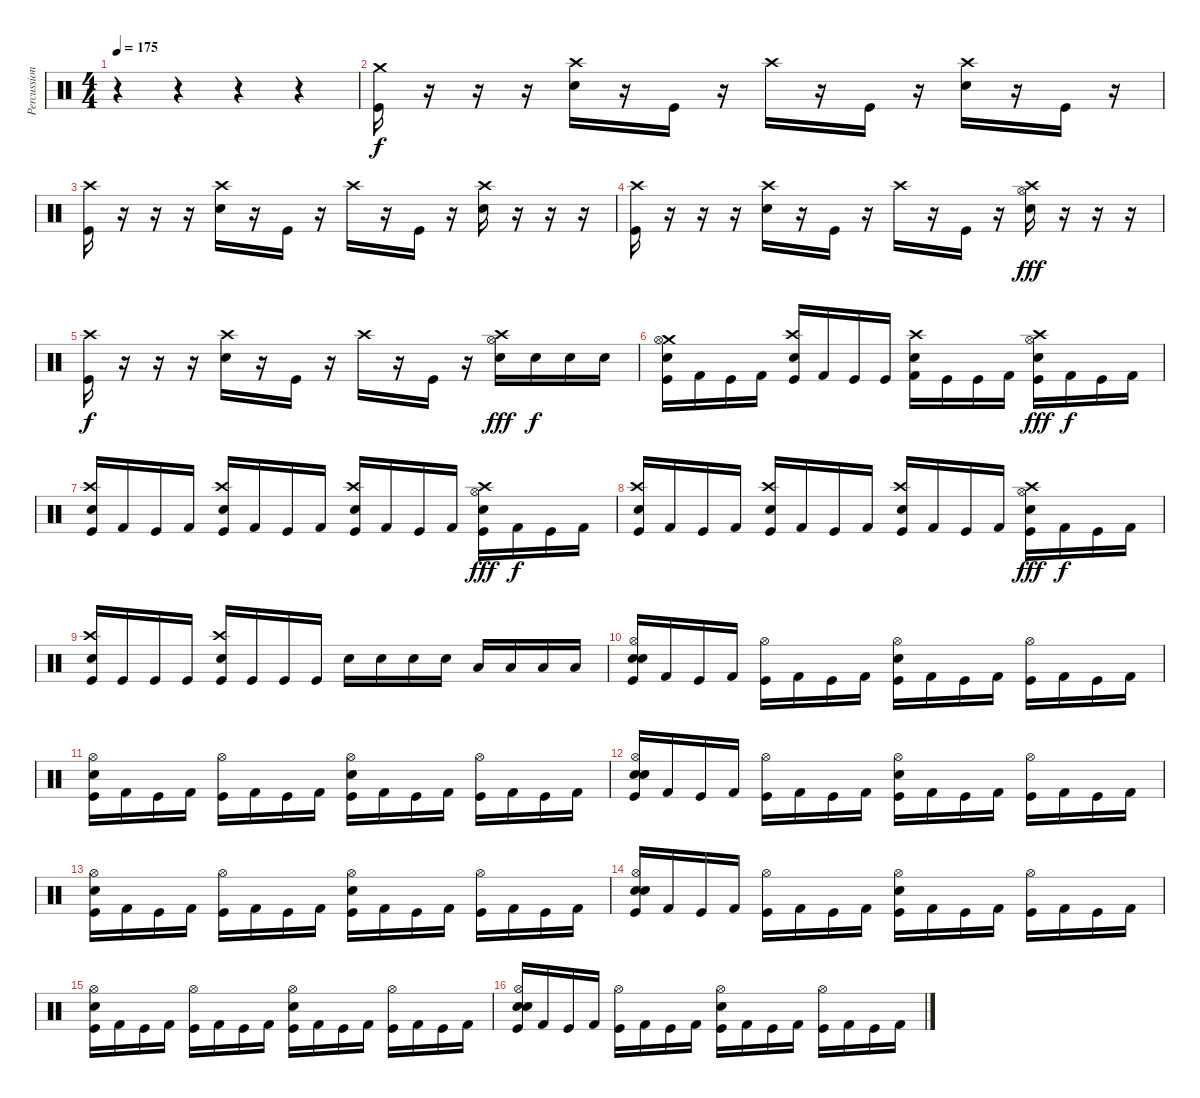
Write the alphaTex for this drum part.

\track ("Percussions" "Percussion") {instrument percussion}
\staff {score}
\articulation defaults
\ts (4 4)
\tempo 175
\clef neutral
\ks c
r.4{dy f} r.4 r.4 r.4 |
("Crash medium (hit)" "Kick (hit)").16 r.16 r.16 r.16 ("Crash high (hit)" "Electric Snare (hit)").16 r.16 "Kick (hit)".16 r.16 "Crash high (hit)".16 r.16 "Kick (hit)".16 r.16 ("Crash high (hit)" "Electric Snare (hit)").16 r.16 "Kick (hit)".16 r.16 |
("Crash high (hit)" "Kick (hit)").16 r.16 r.16 r.16 ("Crash high (hit)" "Electric Snare (hit)").16 r.16 "Kick (hit)".16 r.16 "Crash high (hit)".16 r.16 "Kick (hit)".16 r.16 ("Crash high (hit)" "Electric Snare (hit)").16 r.16 r.16 r.16 |
("Crash high (hit)" "Kick (hit)").16 r.16 r.16 r.16 ("Crash high (hit)" "Electric Snare (hit)").16 r.16 "Kick (hit)".16 r.16 "Crash high (hit)".16 r.16 "Kick (hit)".16 r.16 ("Crash high (hit)" "Hi-Hat (open)" "Electric Snare (hit)").16{dy fff} r.16 r.16 r.16 |
("Crash high (hit)" "Kick (hit)").16{dy f} r.16 r.16 r.16 ("Crash high (hit)" "Electric Snare (hit)").16 r.16 "Kick (hit)".16 r.16 "Crash high (hit)".16 r.16 "Kick (hit)".16 r.16 ("Crash high (hit)" "Hi-Hat (open)" "Electric Snare (hit)").16{dy fff} "Electric Snare (hit)".16{dy f} "Electric Snare (hit)".16 "Electric Snare (hit)".16 |
("Crash medium (hit)" "Electric Snare (hit)" "Hi-Hat (open)" "Kick (hit)").16 "Kick (hit) 2".16 "Kick (hit)".16 "Kick (hit) 2".16 ("Crash high (hit)" "Electric Snare (hit)" "Kick (hit)").16 "Kick (hit) 2".16 "Kick (hit)".16 "Kick (hit)".16 ("Crash high (hit)" "Electric Snare (hit)" "Kick (hit) 2").16 "Kick (hit)".16 "Kick (hit)".16 "Kick (hit) 2".16 ("Crash high (hit)" "Hi-Hat (open)" "Electric Snare (hit)" "Kick (hit)").16{dy fff} "Kick (hit) 2".16{dy f} "Kick (hit)".16 "Kick (hit) 2".16 |
("Crash high (hit)" "Electric Snare (hit)" "Kick (hit)").16 "Kick (hit) 2".16 "Kick (hit)".16 "Kick (hit) 2".16 ("Crash high (hit)" "Electric Snare (hit)" "Kick (hit)").16 "Kick (hit) 2".16 "Kick (hit)".16 "Kick (hit) 2".16 ("Crash high (hit)" "Electric Snare (hit)" "Kick (hit)").16 "Kick (hit) 2".16 "Kick (hit)".16 "Kick (hit) 2".16 ("Crash high (hit)" "Hi-Hat (open)" "Electric Snare (hit)" "Kick (hit)").16{dy fff} "Kick (hit) 2".16{dy f} "Kick (hit)".16 "Kick (hit) 2".16 |
("Crash high (hit)" "Electric Snare (hit)" "Kick (hit)").16 "Kick (hit) 2".16 "Kick (hit)".16 "Kick (hit) 2".16 ("Crash high (hit)" "Electric Snare (hit)" "Kick (hit)").16 "Kick (hit) 2".16 "Kick (hit)".16 "Kick (hit) 2".16 ("Crash high (hit)" "Electric Snare (hit)" "Kick (hit)").16 "Kick (hit) 2".16 "Kick (hit)".16 "Kick (hit) 2".16 ("Crash high (hit)" "Hi-Hat (open)" "Electric Snare (hit)" "Kick (hit)").16{dy fff} "Kick (hit) 2".16{dy f} "Kick (hit)".16 "Kick (hit) 2".16 |
("Crash high (hit)" "Electric Snare (hit)" "Kick (hit)").16 "Kick (hit)".16 "Kick (hit)".16 "Kick (hit)".16 ("Crash high (hit)" "Electric Snare (hit)" "Kick (hit)").16 "Kick (hit)".16 "Kick (hit)".16 "Kick (hit)".16 "Electric Snare (hit)".16 "Electric Snare (hit)".16 "Electric Snare (hit)".16 "Electric Snare (hit)".16 "Low Tom (hit)".16 "Low Tom (hit)".16 "Low Tom (hit)".16 "Low Tom (hit)".16 |
("Hi-Hat (open)" "Electric Snare (hit)" "Snare (hit) 2" "Kick (hit)").16 "Kick (hit) 2".16 "Kick (hit)".16 "Kick (hit) 2".16 ("Hi-Hat (open)" "Kick (hit)").16 "Kick (hit) 2".16 "Kick (hit)".16 "Kick (hit) 2".16 ("Hi-Hat (open)" "Electric Snare (hit)" "Kick (hit)").16 "Kick (hit) 2".16 "Kick (hit)".16 "Kick (hit) 2".16 ("Hi-Hat (open)" "Kick (hit)").16 "Kick (hit) 2".16 "Kick (hit)".16 "Kick (hit) 2".16 |
("Hi-Hat (open)" "Electric Snare (hit)" "Kick (hit)").16 "Kick (hit) 2".16 "Kick (hit)".16 "Kick (hit) 2".16 ("Hi-Hat (open)" "Kick (hit)").16 "Kick (hit) 2".16 "Kick (hit)".16 "Kick (hit) 2".16 ("Hi-Hat (open)" "Electric Snare (hit)" "Kick (hit)").16 "Kick (hit) 2".16 "Kick (hit)".16 "Kick (hit) 2".16 ("Hi-Hat (open)" "Kick (hit)").16 "Kick (hit) 2".16 "Kick (hit)".16 "Kick (hit) 2".16 |
("Hi-Hat (open)" "Electric Snare (hit)" "Snare (hit) 2" "Kick (hit)").16 "Kick (hit) 2".16 "Kick (hit)".16 "Kick (hit) 2".16 ("Hi-Hat (open)" "Kick (hit)").16 "Kick (hit) 2".16 "Kick (hit)".16 "Kick (hit) 2".16 ("Hi-Hat (open)" "Electric Snare (hit)" "Kick (hit)").16 "Kick (hit) 2".16 "Kick (hit)".16 "Kick (hit) 2".16 ("Hi-Hat (open)" "Kick (hit)").16 "Kick (hit) 2".16 "Kick (hit)".16 "Kick (hit) 2".16 |
("Hi-Hat (open)" "Electric Snare (hit)" "Kick (hit)").16 "Kick (hit) 2".16 "Kick (hit)".16 "Kick (hit) 2".16 ("Hi-Hat (open)" "Kick (hit)").16 "Kick (hit) 2".16 "Kick (hit)".16 "Kick (hit) 2".16 ("Hi-Hat (open)" "Electric Snare (hit)" "Kick (hit)").16 "Kick (hit) 2".16 "Kick (hit)".16 "Kick (hit) 2".16 ("Hi-Hat (open)" "Kick (hit)").16 "Kick (hit) 2".16 "Kick (hit)".16 "Kick (hit) 2".16 |
("Hi-Hat (open)" "Electric Snare (hit)" "Snare (hit) 2" "Kick (hit)").16 "Kick (hit) 2".16 "Kick (hit)".16 "Kick (hit) 2".16 ("Hi-Hat (open)" "Kick (hit)").16 "Kick (hit) 2".16 "Kick (hit)".16 "Kick (hit) 2".16 ("Hi-Hat (open)" "Electric Snare (hit)" "Kick (hit)").16 "Kick (hit) 2".16 "Kick (hit)".16 "Kick (hit) 2".16 ("Hi-Hat (open)" "Kick (hit)").16 "Kick (hit) 2".16 "Kick (hit)".16 "Kick (hit) 2".16 |
("Hi-Hat (open)" "Electric Snare (hit)" "Kick (hit)").16 "Kick (hit) 2".16 "Kick (hit)".16 "Kick (hit) 2".16 ("Hi-Hat (open)" "Kick (hit)").16 "Kick (hit) 2".16 "Kick (hit)".16 "Kick (hit) 2".16 ("Hi-Hat (open)" "Electric Snare (hit)" "Kick (hit)").16 "Kick (hit) 2".16 "Kick (hit)".16 "Kick (hit) 2".16 ("Hi-Hat (open)" "Kick (hit)").16 "Kick (hit) 2".16 "Kick (hit)".16 "Kick (hit) 2".16 |
("Hi-Hat (open)" "Electric Snare (hit)" "Snare (hit) 2" "Kick (hit)").16 "Kick (hit) 2".16 "Kick (hit)".16 "Kick (hit) 2".16 ("Hi-Hat (open)" "Kick (hit)").16 "Kick (hit) 2".16 "Kick (hit)".16 "Kick (hit) 2".16 ("Hi-Hat (open)" "Electric Snare (hit)" "Kick (hit)").16 "Kick (hit) 2".16 "Kick (hit)".16 "Kick (hit) 2".16 ("Hi-Hat (open)" "Kick (hit)").16 "Kick (hit) 2".16 "Kick (hit)".16 "Kick (hit) 2".16
